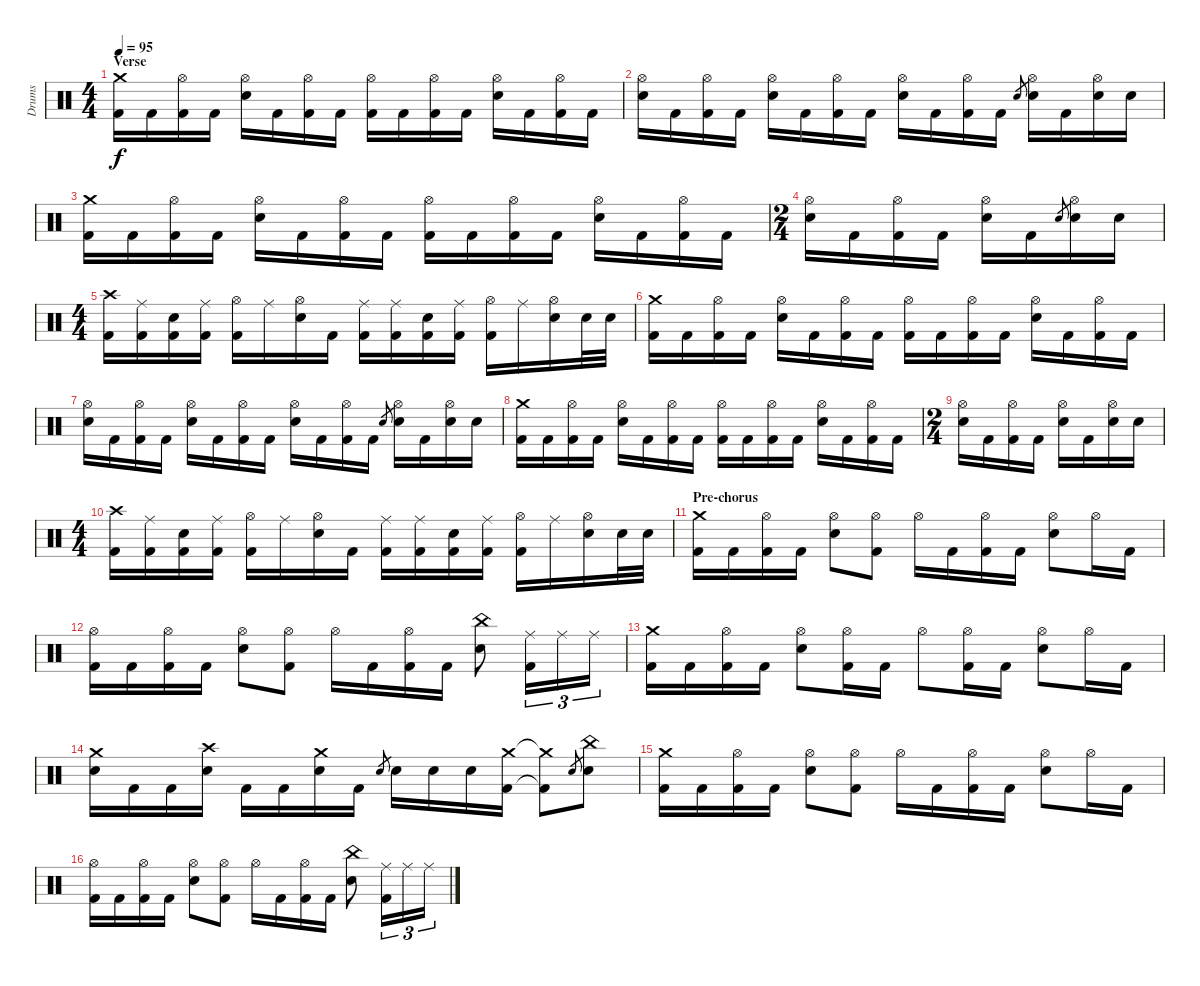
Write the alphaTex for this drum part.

\track ("Drums" "Drums") {instrument percussion}
\staff {score}
\articulation defaults
\ts (4 4)
\section ("" "Verse")
\tempo 95
\clef neutral
\ks c
("Crash medium (hit)" "Kick (hit) 2").16{dy f} "Kick (hit) 2".16 ("Hi-Hat (open)" "Kick (hit) 2").16 "Kick (hit) 2".16 ("Hi-Hat (open)" "Snare (hit) 2").16 "Kick (hit) 2".16 ("Hi-Hat (open)" "Kick (hit) 2").16 "Kick (hit) 2".16 ("Hi-Hat (open)" "Kick (hit) 2").16 "Kick (hit) 2".16 ("Hi-Hat (open)" "Kick (hit) 2").16 "Kick (hit) 2".16 ("Hi-Hat (open)" "Snare (hit) 2").16 "Kick (hit) 2".16 ("Hi-Hat (open)" "Kick (hit) 2").16 "Kick (hit) 2".16 |
("Hi-Hat (open)" "Snare (hit) 2").16 "Kick (hit) 2".16 ("Hi-Hat (open)" "Kick (hit) 2").16 "Kick (hit) 2".16 ("Hi-Hat (open)" "Snare (hit) 2").16 "Kick (hit) 2".16 ("Hi-Hat (open)" "Kick (hit) 2").16 "Kick (hit) 2".16 ("Hi-Hat (open)" "Snare (hit) 2").16 "Kick (hit) 2".16 ("Hi-Hat (open)" "Kick (hit) 2").16 "Kick (hit) 2".16 "Snare (hit) 2".8{gr} ("Hi-Hat (open)" "Snare (hit) 2").16 "Kick (hit) 2".16 ("Hi-Hat (open)" "Snare (hit) 2").16 "Snare (hit) 2".16 |
("Crash medium (hit)" "Kick (hit) 2").16 "Kick (hit) 2".16 ("Hi-Hat (open)" "Kick (hit) 2").16 "Kick (hit) 2".16 ("Hi-Hat (open)" "Snare (hit) 2").16 "Kick (hit) 2".16 ("Hi-Hat (open)" "Kick (hit) 2").16 "Kick (hit) 2".16 ("Hi-Hat (open)" "Kick (hit) 2").16 "Kick (hit) 2".16 ("Hi-Hat (open)" "Kick (hit) 2").16 "Kick (hit) 2".16 ("Hi-Hat (open)" "Snare (hit) 2").16 "Kick (hit) 2".16 ("Hi-Hat (open)" "Kick (hit) 2").16 "Kick (hit) 2".16 |
\ts (2 4)
("Hi-Hat (open)" "Snare (hit) 2").16 "Kick (hit) 2".16 ("Hi-Hat (open)" "Kick (hit) 2").16 "Kick (hit) 2".16 ("Hi-Hat (open)" "Snare (hit) 2").16 "Kick (hit) 2".16 "Snare (hit) 2".8{gr} ("Hi-Hat (open)" "Snare (hit) 2").16 "Snare (hit) 2".16 |
\ts (4 4)
("Crash high (hit)" "Kick (hit) 2").16 ("Ride (middle)" "Kick (hit) 2").16 ("Snare (hit) 2" "Kick (hit) 2").16 ("Ride (middle)" "Kick (hit) 2").16 ("Hi-Hat (open)" "Kick (hit) 2").16 "Ride (middle)".16 ("Hi-Hat (open)" "Snare (hit) 2").16 "Kick (hit) 2".16 ("Ride (middle)" "Kick (hit) 2").16 ("Ride (middle)" "Kick (hit) 2").16 ("Snare (hit) 2" "Kick (hit) 2").16 ("Ride (middle)" "Kick (hit) 2").16 ("Hi-Hat (open)" "Kick (hit) 2").16 "Ride (middle)".16 ("Hi-Hat (open)" "Snare (hit) 2").16 "Snare (hit) 2".32 "Snare (hit) 2".32 |
("Crash medium (hit)" "Kick (hit) 2").16 "Kick (hit) 2".16 ("Hi-Hat (open)" "Kick (hit) 2").16 "Kick (hit) 2".16 ("Hi-Hat (open)" "Snare (hit) 2").16 "Kick (hit) 2".16 ("Hi-Hat (open)" "Kick (hit) 2").16 "Kick (hit) 2".16 ("Hi-Hat (open)" "Kick (hit) 2").16 "Kick (hit) 2".16 ("Hi-Hat (open)" "Kick (hit) 2").16 "Kick (hit) 2".16 ("Hi-Hat (open)" "Snare (hit) 2").16 "Kick (hit) 2".16 ("Hi-Hat (open)" "Kick (hit) 2").16 "Kick (hit) 2".16 |
("Hi-Hat (open)" "Snare (hit) 2").16 "Kick (hit) 2".16 ("Hi-Hat (open)" "Kick (hit) 2").16 "Kick (hit) 2".16 ("Hi-Hat (open)" "Snare (hit) 2").16 "Kick (hit) 2".16 ("Hi-Hat (open)" "Kick (hit) 2").16 "Kick (hit) 2".16 ("Hi-Hat (open)" "Snare (hit) 2").16 "Kick (hit) 2".16 ("Hi-Hat (open)" "Kick (hit) 2").16 "Kick (hit) 2".16 "Snare (hit) 2".8{gr} ("Hi-Hat (open)" "Snare (hit) 2").16 "Kick (hit) 2".16 ("Hi-Hat (open)" "Snare (hit) 2").16 "Snare (hit) 2".16 |
("Crash medium (hit)" "Kick (hit) 2").16 "Kick (hit) 2".16 ("Hi-Hat (open)" "Kick (hit) 2").16 "Kick (hit) 2".16 ("Hi-Hat (open)" "Snare (hit) 2").16 "Kick (hit) 2".16 ("Hi-Hat (open)" "Kick (hit) 2").16 "Kick (hit) 2".16 ("Hi-Hat (open)" "Kick (hit) 2").16 "Kick (hit) 2".16 ("Hi-Hat (open)" "Kick (hit) 2").16 "Kick (hit) 2".16 ("Hi-Hat (open)" "Snare (hit) 2").16 "Kick (hit) 2".16 ("Hi-Hat (open)" "Kick (hit) 2").16 "Kick (hit) 2".16 |
\ts (2 4)
("Hi-Hat (open)" "Snare (hit) 2").16 "Kick (hit) 2".16 ("Hi-Hat (open)" "Kick (hit) 2").16 "Kick (hit) 2".16 ("Hi-Hat (open)" "Snare (hit) 2").16 "Kick (hit) 2".16 ("Hi-Hat (open)" "Snare (hit) 2").16 "Snare (hit) 2".16 |
\ts (4 4)
("Crash high (hit)" "Kick (hit) 2").16 ("Ride (middle)" "Kick (hit) 2").16 ("Snare (hit) 2" "Kick (hit) 2").16 ("Ride (middle)" "Kick (hit) 2").16 ("Hi-Hat (open)" "Kick (hit) 2").16 "Ride (middle)".16 ("Hi-Hat (open)" "Snare (hit) 2").16 "Kick (hit) 2".16 ("Ride (middle)" "Kick (hit) 2").16 ("Ride (middle)" "Kick (hit) 2").16 ("Snare (hit) 2" "Kick (hit) 2").16 ("Ride (middle)" "Kick (hit) 2").16 ("Hi-Hat (open)" "Kick (hit) 2").16 "Ride (middle)".16 ("Hi-Hat (open)" "Snare (hit) 2").16 "Snare (hit) 2".32 "Snare (hit) 2".32 |
\section ("" "Pre-chorus")
("Crash medium (hit)" "Kick (hit) 2").16 "Kick (hit) 2".16 ("Hi-Hat (open)" "Kick (hit) 2").16 "Kick (hit) 2".16 ("Hi-Hat (open)" "Snare (hit) 2").8 ("Hi-Hat (open)" "Kick (hit) 2").8 "Hi-Hat (open)".16 "Kick (hit) 2".16 ("Hi-Hat (open)" "Kick (hit) 2").16 "Kick (hit) 2".16 ("Hi-Hat (open)" "Snare (hit) 2").8 "Hi-Hat (open)".16 "Kick (hit) 2".16 |
("Hi-Hat (open)" "Kick (hit) 2").16 "Kick (hit) 2".16 ("Hi-Hat (open)" "Kick (hit) 2").16 "Kick (hit) 2".16 ("Hi-Hat (open)" "Snare (hit) 2").8 ("Hi-Hat (open)" "Kick (hit) 2").8 "Hi-Hat (open)".16 "Kick (hit) 2".16 ("Hi-Hat (open)" "Kick (hit) 2").16 "Kick (hit) 2".16 ("China (hit)" "Snare (hit) 2").8 ("Ride (middle)" "Kick (hit) 2").16{tu (3 2)} "Ride (middle)".16{tu (3 2)} "Ride (middle)".16{tu (3 2)} |
("Crash medium (hit)" "Kick (hit) 2").16 "Kick (hit) 2".16 ("Hi-Hat (open)" "Kick (hit) 2").16 "Kick (hit) 2".16 ("Hi-Hat (open)" "Snare (hit) 2").8 ("Hi-Hat (open)" "Kick (hit) 2").16 "Kick (hit) 2".16 "Hi-Hat (open)".8 ("Hi-Hat (open)" "Kick (hit) 2").16 "Kick (hit) 2".16 ("Hi-Hat (open)" "Snare (hit) 2").8 "Hi-Hat (open)".16 "Kick (hit) 2".16 |
("Crash medium (hit)" "Snare (hit) 2").16 "Kick (hit) 2".16 "Kick (hit) 2".16 ("Crash high (hit)" "Snare (hit) 2").16 "Kick (hit) 2".16 "Kick (hit) 2".16 ("Crash medium (hit)" "Snare (hit) 2").16 "Kick (hit) 2".16 "Snare (hit) 2".8{gr} "Snare (hit) 2".16 "Snare (hit) 2".16 "Snare (hit) 2".16 ("Crash medium (hit)" "Kick (hit) 2").16 ("Crash medium (hit)"{t} "Kick (hit) 2"{t}).8 "Snare (hit) 2".8{gr} ("China (hit)" "Snare (hit) 2").8 |
("Crash medium (hit)" "Kick (hit) 2").16 "Kick (hit) 2".16 ("Hi-Hat (open)" "Kick (hit) 2").16 "Kick (hit) 2".16 ("Hi-Hat (open)" "Snare (hit) 2").8 ("Hi-Hat (open)" "Kick (hit) 2").8 "Hi-Hat (open)".16 "Kick (hit) 2".16 ("Hi-Hat (open)" "Kick (hit) 2").16 "Kick (hit) 2".16 ("Hi-Hat (open)" "Snare (hit) 2").8 "Hi-Hat (open)".16 "Kick (hit) 2".16 |
("Hi-Hat (open)" "Kick (hit) 2").16 "Kick (hit) 2".16 ("Hi-Hat (open)" "Kick (hit) 2").16 "Kick (hit) 2".16 ("Hi-Hat (open)" "Snare (hit) 2").8 ("Hi-Hat (open)" "Kick (hit) 2").8 "Hi-Hat (open)".16 "Kick (hit) 2".16 ("Hi-Hat (open)" "Kick (hit) 2").16 "Kick (hit) 2".16 ("China (hit)" "Snare (hit) 2").8 ("Ride (middle)" "Kick (hit) 2").16{tu (3 2)} "Ride (middle)".16{tu (3 2)} "Ride (middle)".16{tu (3 2)}
